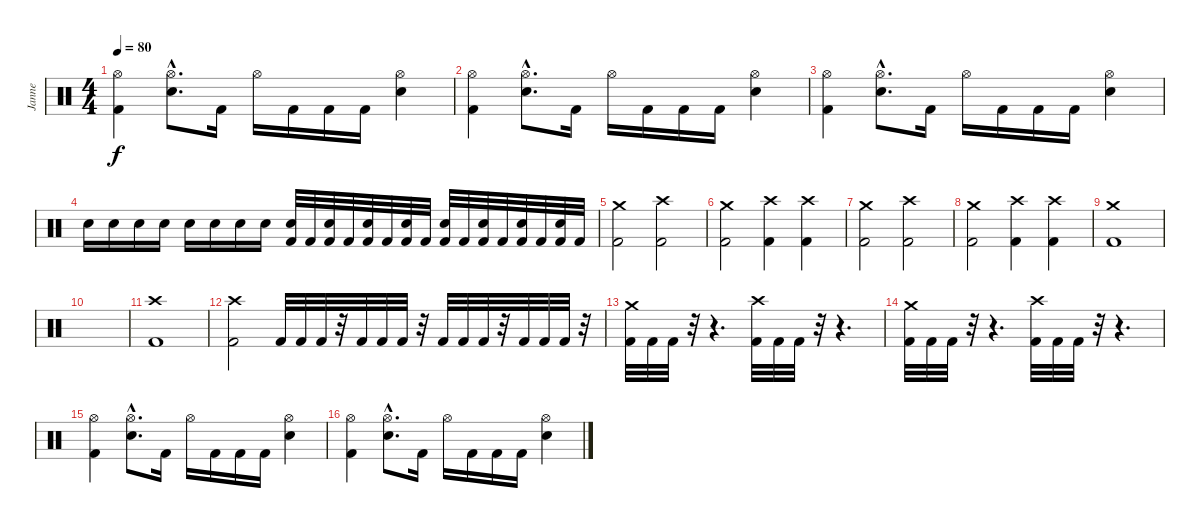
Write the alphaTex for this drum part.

\track ("Janne" "Janne") {instrument percussion}
\staff {score}
\articulation defaults
\ts (4 4)
\tempo 80
\clef neutral
\ks c
("Hi-Hat (open)" "Kick (hit) 2").4{dy f} ("Hi-Hat (open)"{hac} "Electric Snare (hit)"{hac}).8{d} "Kick (hit) 2".16 "Hi-Hat (open)".16 "Kick (hit) 2".16 "Kick (hit) 2".16 "Kick (hit) 2".16 ("Hi-Hat (open)" "Electric Snare (hit)").4 |
("Hi-Hat (open)" "Kick (hit) 2").4 ("Hi-Hat (open)"{hac} "Electric Snare (hit)"{hac}).8{d} "Kick (hit) 2".16 "Hi-Hat (open)".16 "Kick (hit) 2".16 "Kick (hit) 2".16 "Kick (hit) 2".16 ("Hi-Hat (open)" "Electric Snare (hit)").4 |
("Hi-Hat (open)" "Kick (hit) 2").4 ("Hi-Hat (open)"{hac} "Electric Snare (hit)"{hac}).8{d} "Kick (hit) 2".16 "Hi-Hat (open)".16 "Kick (hit) 2".16 "Kick (hit) 2".16 "Kick (hit) 2".16 ("Hi-Hat (open)" "Electric Snare (hit)").4 |
"Electric Snare (hit)".16 "Electric Snare (hit)".16 "Electric Snare (hit)".16 "Electric Snare (hit)".16 "Electric Snare (hit)".16 "Electric Snare (hit)".16 "Electric Snare (hit)".16 "Electric Snare (hit)".16 ("Electric Snare (hit)" "Kick (hit) 2").32 "Kick (hit) 2".32 ("Electric Snare (hit)" "Kick (hit) 2").32 "Kick (hit) 2".32 ("Electric Snare (hit)" "Kick (hit) 2").32 "Kick (hit) 2".32 ("Electric Snare (hit)" "Kick (hit) 2").32 "Kick (hit) 2".32 ("Electric Snare (hit)" "Kick (hit) 2").32 "Kick (hit) 2".32 ("Electric Snare (hit)" "Kick (hit) 2").32 "Kick (hit) 2".32 ("Electric Snare (hit)" "Kick (hit) 2").32 "Kick (hit) 2".32 ("Electric Snare (hit)" "Kick (hit) 2").32 "Kick (hit) 2".32 |
("Crash medium (hit)" "Kick (hit) 2").2 ("Crash high (hit)" "Kick (hit) 2").2 |
("Crash medium (hit)" "Kick (hit) 2").2 ("Crash high (hit)" "Kick (hit) 2").4 ("Crash high (hit)" "Kick (hit) 2").4 |
("Crash medium (hit)" "Kick (hit) 2").2 ("Crash high (hit)" "Kick (hit) 2").2 |
("Crash medium (hit)" "Kick (hit) 2").2 ("Crash high (hit)" "Kick (hit) 2").4 ("Crash high (hit)" "Kick (hit) 2").4 |
("Crash medium (hit)" "Kick (hit) 2").1 |
|
("Crash high (hit)" "Kick (hit) 2").1 |
("Crash high (hit)" "Kick (hit) 2").2 "Kick (hit) 2".32 "Kick (hit) 2".32 "Kick (hit) 2".32 r.32 "Kick (hit) 2".32 "Kick (hit) 2".32 "Kick (hit) 2".32 r.32 "Kick (hit) 2".32 "Kick (hit) 2".32 "Kick (hit) 2".32 r.32 "Kick (hit) 2".32 "Kick (hit) 2".32 "Kick (hit) 2".32 r.32 |
("Crash medium (hit)" "Kick (hit) 2").32 "Kick (hit) 2".32 "Kick (hit) 2".32 r.32 r.4{d} ("Crash high (hit)" "Kick (hit) 2").32 "Kick (hit) 2".32 "Kick (hit) 2".32 r.32 r.4{d} |
("Crash medium (hit)" "Kick (hit) 2").32 "Kick (hit) 2".32 "Kick (hit) 2".32 r.32 r.4{d} ("Crash high (hit)" "Kick (hit) 2").32 "Kick (hit) 2".32 "Kick (hit) 2".32 r.32 r.4{d} |
("Hi-Hat (open)" "Kick (hit) 2").4 ("Hi-Hat (open)"{hac} "Electric Snare (hit)"{hac}).8{d} "Kick (hit) 2".16 "Hi-Hat (open)".16 "Kick (hit) 2".16 "Kick (hit) 2".16 "Kick (hit) 2".16 ("Hi-Hat (open)" "Electric Snare (hit)").4 |
("Hi-Hat (open)" "Kick (hit) 2").4 ("Hi-Hat (open)"{hac} "Electric Snare (hit)"{hac}).8{d} "Kick (hit) 2".16 "Hi-Hat (open)".16 "Kick (hit) 2".16 "Kick (hit) 2".16 "Kick (hit) 2".16 ("Hi-Hat (open)" "Electric Snare (hit)").4
